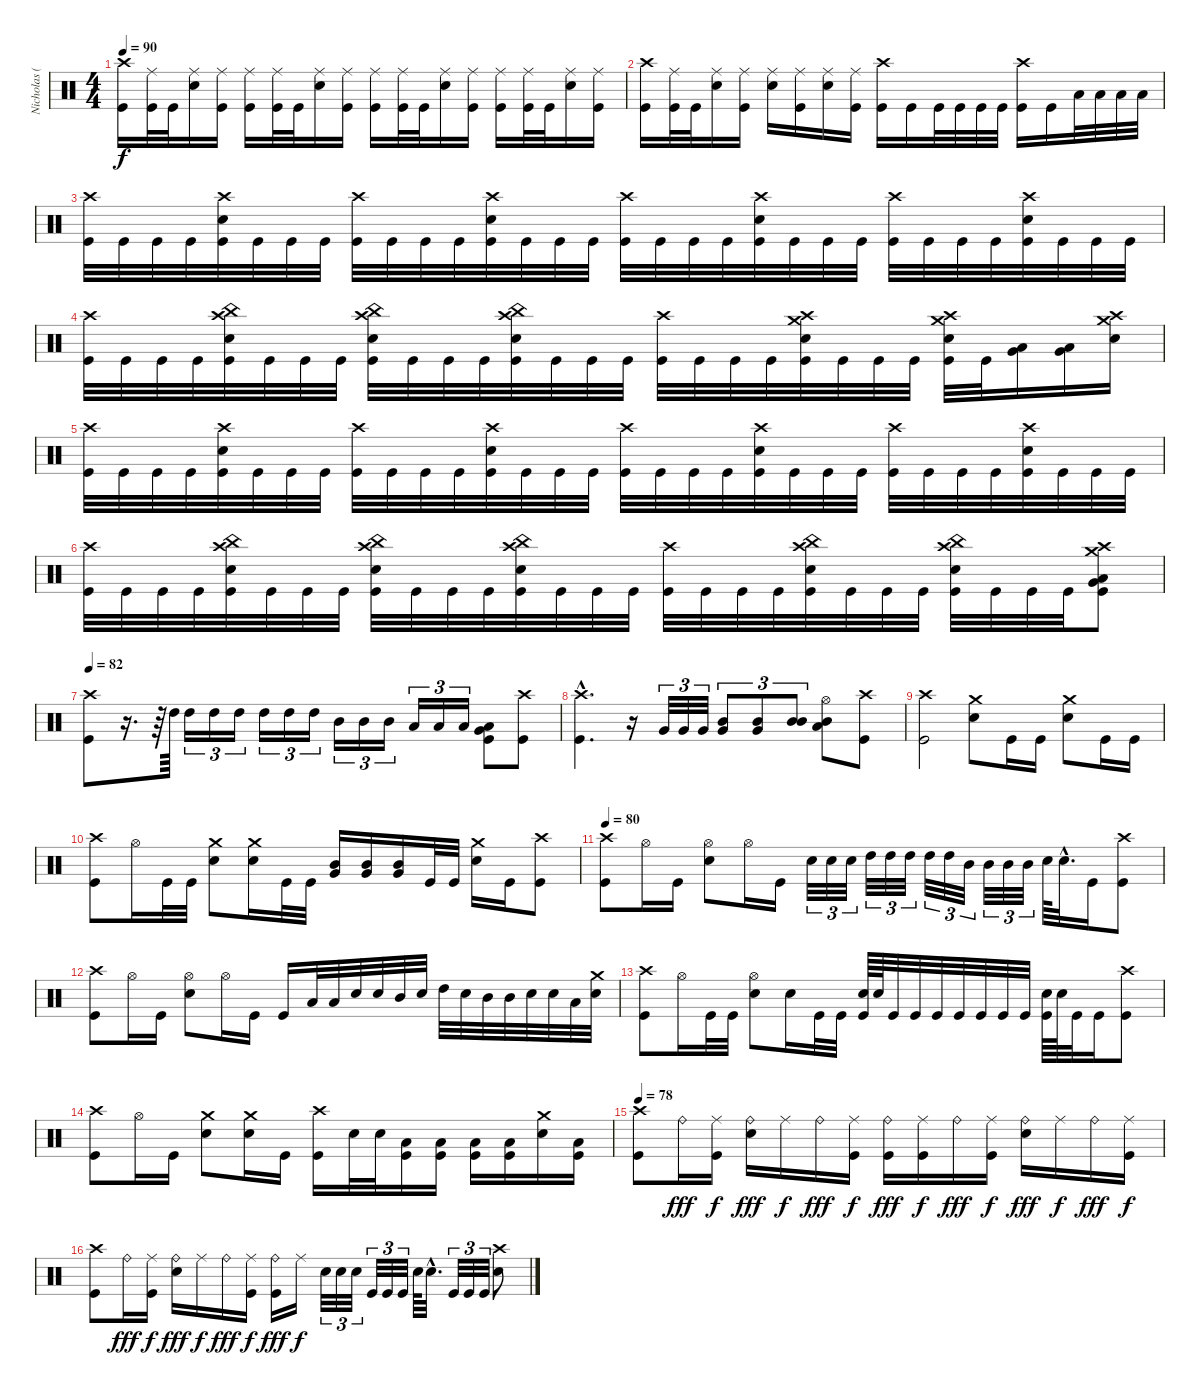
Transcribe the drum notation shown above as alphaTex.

\track ("Nicholas (Drums)" "Nicholas (") {instrument percussion}
\staff {score}
\articulation defaults
\ts (4 4)
\tempo 90
\clef neutral
\ks c
("Crash high (hit)" "Kick (hit)").16{dy f} ("Ride (middle)" "Kick (hit)").32 "Kick (hit)".32 ("Ride (middle)" "Electric Snare (hit)").16 ("Ride (middle)" "Kick (hit)").16 ("Ride (middle)" "Kick (hit)").16 ("Ride (middle)" "Kick (hit)").32 "Kick (hit)".32 ("Ride (middle)" "Electric Snare (hit)").16 ("Ride (middle)" "Kick (hit)").16 ("Ride (middle)" "Kick (hit)").16 ("Ride (middle)" "Kick (hit)").32 "Kick (hit)".32 ("Ride (middle)" "Electric Snare (hit)").16 ("Ride (middle)" "Kick (hit)").16 ("Ride (middle)" "Kick (hit)").16 ("Ride (middle)" "Kick (hit)").32 "Kick (hit)".32 ("Ride (middle)" "Electric Snare (hit)").16 ("Ride (middle)" "Kick (hit)").16 |
("Crash high (hit)" "Kick (hit)").16 ("Ride (middle)" "Kick (hit)").32 "Kick (hit)".32 ("Ride (middle)" "Electric Snare (hit)").16 ("Ride (middle)" "Kick (hit)").16 ("Ride (middle)" "Electric Snare (hit)").16 ("Ride (middle)" "Kick (hit)").16 ("Ride (middle)" "Electric Snare (hit)").16 ("Ride (middle)" "Kick (hit)").16 ("Crash high (hit)" "Kick (hit)").16 "Kick (hit)".16 "Kick (hit)".32 "Kick (hit)".32 "Kick (hit)".32 "Kick (hit)".32 ("Crash high (hit)" "Kick (hit)").16 "Kick (hit)".16 "Low Tom (hit)".32 "Low Tom (hit)".32 "Low Tom (hit)".32 "Low Tom (hit)".32 |
("Crash high (hit)" "Kick (hit)").32 "Kick (hit)".32 "Kick (hit)".32 "Kick (hit)".32 ("Crash high (hit)" "Electric Snare (hit)" "Kick (hit)").32 "Kick (hit)".32 "Kick (hit)".32 "Kick (hit)".32 ("Crash high (hit)" "Kick (hit)").32 "Kick (hit)".32 "Kick (hit)".32 "Kick (hit)".32 ("Crash high (hit)" "Electric Snare (hit)" "Kick (hit)").32 "Kick (hit)".32 "Kick (hit)".32 "Kick (hit)".32 ("Crash high (hit)" "Kick (hit)").32 "Kick (hit)".32 "Kick (hit)".32 "Kick (hit)".32 ("Crash high (hit)" "Electric Snare (hit)" "Kick (hit)").32 "Kick (hit)".32 "Kick (hit)".32 "Kick (hit)".32 ("Crash high (hit)" "Kick (hit)").32 "Kick (hit)".32 "Kick (hit)".32 "Kick (hit)".32 ("Crash high (hit)" "Electric Snare (hit)" "Kick (hit)").32 "Kick (hit)".32 "Kick (hit)".32 "Kick (hit)".32 |
("Crash high (hit)" "Kick (hit)").32 "Kick (hit)".32 "Kick (hit)".32 "Kick (hit)".32 ("Crash high (hit)" "China (hit)" "Electric Snare (hit)" "Kick (hit)").32 "Kick (hit)".32 "Kick (hit)".32 "Kick (hit)".32 ("Crash high (hit)" "China (hit)" "Electric Snare (hit)" "Kick (hit)").32 "Kick (hit)".32 "Kick (hit)".32 "Kick (hit)".32 ("Crash high (hit)" "China (hit)" "Electric Snare (hit)" "Kick (hit)").32 "Kick (hit)".32 "Kick (hit)".32 "Kick (hit)".32 ("Crash high (hit)" "Kick (hit)").32 "Kick (hit)".32 "Kick (hit)".32 "Kick (hit)".32 ("Crash high (hit)" "Crash medium (hit)" "Electric Snare (hit)" "Kick (hit)").32 "Kick (hit)".32 "Kick (hit)".32 "Kick (hit)".32 ("Crash high (hit)" "Crash medium (hit)" "Electric Snare (hit)" "Kick (hit)").32 "Kick (hit)".32 ("Low Tom (hit)" "Very Low Tom (hit)").16 ("Low Tom (hit)" "Very Low Tom (hit)").16 ("Crash high (hit)" "Crash medium (hit)" "Electric Snare (hit)").16 |
("Crash high (hit)" "Kick (hit)").32 "Kick (hit)".32 "Kick (hit)".32 "Kick (hit)".32 ("Crash high (hit)" "Electric Snare (hit)" "Kick (hit)").32 "Kick (hit)".32 "Kick (hit)".32 "Kick (hit)".32 ("Crash high (hit)" "Kick (hit)").32 "Kick (hit)".32 "Kick (hit)".32 "Kick (hit)".32 ("Crash high (hit)" "Electric Snare (hit)" "Kick (hit)").32 "Kick (hit)".32 "Kick (hit)".32 "Kick (hit)".32 ("Crash high (hit)" "Kick (hit)").32 "Kick (hit)".32 "Kick (hit)".32 "Kick (hit)".32 ("Crash high (hit)" "Electric Snare (hit)" "Kick (hit)").32 "Kick (hit)".32 "Kick (hit)".32 "Kick (hit)".32 ("Crash high (hit)" "Kick (hit)").32 "Kick (hit)".32 "Kick (hit)".32 "Kick (hit)".32 ("Crash high (hit)" "Electric Snare (hit)" "Kick (hit)").32 "Kick (hit)".32 "Kick (hit)".32 "Kick (hit)".32 |
("Crash high (hit)" "Kick (hit)").32 "Kick (hit)".32 "Kick (hit)".32 "Kick (hit)".32 ("Crash high (hit)" "China (hit)" "Electric Snare (hit)" "Kick (hit)").32 "Kick (hit)".32 "Kick (hit)".32 "Kick (hit)".32 ("Crash high (hit)" "China (hit)" "Electric Snare (hit)" "Kick (hit)").32 "Kick (hit)".32 "Kick (hit)".32 "Kick (hit)".32 ("Crash high (hit)" "China (hit)" "Electric Snare (hit)" "Kick (hit)").32 "Kick (hit)".32 "Kick (hit)".32 "Kick (hit)".32 ("Crash high (hit)" "Kick (hit)").32 "Kick (hit)".32 "Kick (hit)".32 "Kick (hit)".32 ("Crash high (hit)" "China (hit)" "Electric Snare (hit)" "Kick (hit)").32 "Kick (hit)".32 "Kick (hit)".32 "Kick (hit)".32 ("Crash high (hit)" "China (hit)" "Electric Snare (hit)" "Kick (hit)").32 "Kick (hit)".32 "Kick (hit)".32 "Kick (hit)".32 ("Crash high (hit)" "Crash medium (hit)" "Low Tom (hit)" "Very Low Tom (hit)" "Kick (hit)").8 |
\tempo 82
("Crash high (hit)" "Kick (hit)").8 r.16{d} r.64{balance 16} "High Tom (hit)".64{balance 0} "High Tom (hit)".16{tu (3 2)} "High Tom (hit)".16{tu (3 2)} "High Tom (hit)".16{tu (3 2)} "High Tom (hit)".16{tu (3 2)} "High Tom (hit)".16{tu (3 2)} "High Tom (hit)".16{tu (3 2)} "Mid Tom (hit)".16{tu (3 2)} "Mid Tom (hit)".16{tu (3 2)} "Mid Tom (hit)".16{tu (3 2)} "Low Tom (hit)".16{tu (3 2)} "Low Tom (hit)".16{tu (3 2)} "Low Tom (hit)".16{tu (3 2)} ("Low Tom (hit)" "Very Low Tom (hit)" "Kick (hit)").8 ("Crash high (hit)" "Kick (hit)").8{balance 8} |
("Crash high (hit)"{hac} "Kick (hit)"{hac}).4{d} r.16 "Very Low Tom (hit)".32{tu (3 2)} "Very Low Tom (hit)".32{tu (3 2)} "Very Low Tom (hit)".32{tu (3 2)} ("Mid Tom (hit)" "Very Low Tom (hit)").8{tu (3 2)} ("Mid Tom (hit)" "Very Low Tom (hit)").8{tu (3 2)} ("Mid Tom (hit)" "Mid Tom (hit)").8{tu (3 2)} ("Hi-Hat (open)" "Mid Tom (hit)" "Low Tom (hit)").8 ("Crash high (hit)" "Kick (hit)").8 |
("Crash high (hit)" "Kick (hit)").2 ("Crash medium (hit)" "Electric Snare (hit)").8 "Kick (hit)".16 "Kick (hit)".16 ("Crash medium (hit)" "Electric Snare (hit)").8 "Kick (hit)".16 "Kick (hit)".16 |
("Crash high (hit)" "Kick (hit)").8 "Hi-Hat (open)".16 "Kick (hit)".32 "Kick (hit)".32 ("Crash medium (hit)" "Electric Snare (hit)").8 ("Crash medium (hit)" "Electric Snare (hit)").16 "Kick (hit)".32 "Kick (hit)".32 ("Mid Tom (hit)" "Very Low Tom (hit)").16 ("Mid Tom (hit)" "Very Low Tom (hit)").16 ("Mid Tom (hit)" "Very Low Tom (hit)").16 "Kick (hit)".32 "Kick (hit)".32 ("Crash medium (hit)" "Electric Snare (hit)").16 "Kick (hit)".16 ("Crash high (hit)" "Kick (hit)").8 |
\tempo 80
("Crash high (hit)" "Kick (hit)").8 "Hi-Hat (open)".16 "Kick (hit)".16 ("Hi-Hat (open)" "Electric Snare (hit)").8 "Hi-Hat (open)".16 "Kick (hit)".16 "Electric Snare (hit)".32{tu (3 2)} "Electric Snare (hit)".32{tu (3 2)} "Electric Snare (hit)".32{tu (3 2)} "High Tom (hit)".32{tu (3 2)} "High Tom (hit)".32{tu (3 2)} "High Tom (hit)".32{tu (3 2)} "High Tom (hit)".32{tu (3 2)} "High Tom (hit)".32{tu (3 2)} "Mid Tom (hit)".32{tu (3 2)} "Mid Tom (hit)".32{tu (3 2)} "Mid Tom (hit)".32{tu (3 2)} "Mid Tom (hit)".32{tu (3 2)} "Electric Snare (hit)".64 "Electric Snare (hit)"{hac}.32{d} "Kick (hit)".16 ("Crash high (hit)" "Kick (hit)").8 |
("Crash high (hit)" "Kick (hit)").8 "Hi-Hat (open)".16 "Kick (hit)".16 ("Hi-Hat (open)" "Electric Snare (hit)").8 "Hi-Hat (open)".16 "Kick (hit)".16 "Kick (hit)".16 "Low Tom (hit)".32 "Low Tom (hit)".32 "Electric Snare (hit)".32 "Electric Snare (hit)".32 "Mid Tom (hit)".32 "Electric Snare (hit)".32 "High Tom (hit)".32 "Electric Snare (hit)".32 "Mid Tom (hit)".32 "Mid Tom (hit)".32 "Electric Snare (hit)".32 "Electric Snare (hit)".32 "Low Tom (hit)".32 ("Crash medium (hit)" "Electric Snare (hit)").32 |
("Crash high (hit)" "Kick (hit)").8 "Hi-Hat (open)".16 "Kick (hit)".32 "Kick (hit)".32 ("Hi-Hat (open)" "Electric Snare (hit)").8 "Electric Snare (hit)".16 "Kick (hit)".32 "Kick (hit)".32 ("Electric Snare (hit)" "Kick (hit)").64 "Electric Snare (hit)".64 "Kick (hit)".32 "Kick (hit)".32 "Kick (hit)".32 "Kick (hit)".32 "Kick (hit)".32 "Kick (hit)".32 "Kick (hit)".32 ("Electric Snare (hit)" "Kick (hit)").64 "Electric Snare (hit)".64 "Kick (hit)".32 "Kick (hit)".16 ("Crash high (hit)" "Kick (hit)").8 |
("Crash high (hit)" "Kick (hit)").8 "Hi-Hat (open)".16 "Kick (hit)".16 ("Crash medium (hit)" "Electric Snare (hit)").8 ("Crash medium (hit)" "Electric Snare (hit)").16 "Kick (hit)".16 ("Crash high (hit)" "Kick (hit)").16 "Electric Snare (hit)".32 "Electric Snare (hit)".32 ("Low Tom (hit)" "Kick (hit)").16 ("Low Tom (hit)" "Kick (hit)").16 ("Low Tom (hit)" "Kick (hit)").16 ("Low Tom (hit)" "Kick (hit)").16 ("Crash medium (hit)" "Electric Snare (hit)").16 ("Low Tom (hit)" "Kick (hit)").16 |
\tempo 78
("Crash high (hit)" "Kick (hit)").8 "Ride (bell)".16{dy fff} ("Ride (middle)" "Kick (hit)").16{dy f} ("Ride (bell)" "Electric Snare (hit)").16{dy fff} "Ride (middle)".16{dy f} "Ride (bell)".16{dy fff} ("Ride (middle)" "Kick (hit)").16{dy f} ("Ride (bell)" "Kick (hit)").16{dy fff} ("Ride (middle)" "Kick (hit)").16{dy f} "Ride (bell)".16{dy fff} ("Ride (middle)" "Kick (hit)").16{dy f} ("Ride (bell)" "Electric Snare (hit)").16{dy fff} "Ride (middle)".16{dy f} "Ride (bell)".16{dy fff} ("Ride (middle)" "Kick (hit)").16{dy f} |
("Crash high (hit)" "Kick (hit)").8 "Ride (bell)".16{dy fff} ("Ride (middle)" "Kick (hit)").16{dy f} ("Ride (bell)" "Electric Snare (hit)").16{dy fff} "Ride (middle)".16{dy f} "Ride (bell)".16{dy fff} ("Ride (middle)" "Kick (hit)").16{dy f} ("Ride (bell)" "Kick (hit)").16{dy fff} "Ride (middle)".16{dy f} "Electric Snare (hit)".32{tu (3 2)} "Electric Snare (hit)".32{tu (3 2)} "Electric Snare (hit)".32{tu (3 2)} "Kick (hit)".32{tu (3 2)} "Kick (hit)".32{tu (3 2)} "Kick (hit)".32{tu (3 2)} "Electric Snare (hit)".64 "Electric Snare (hit)"{hac}.32{d} "Kick (hit)".32{tu (3 2)} "Kick (hit)".32{tu (3 2)} "Kick (hit)".32{tu (3 2)} ("Crash high (hit)" "Electric Snare (hit)").8
